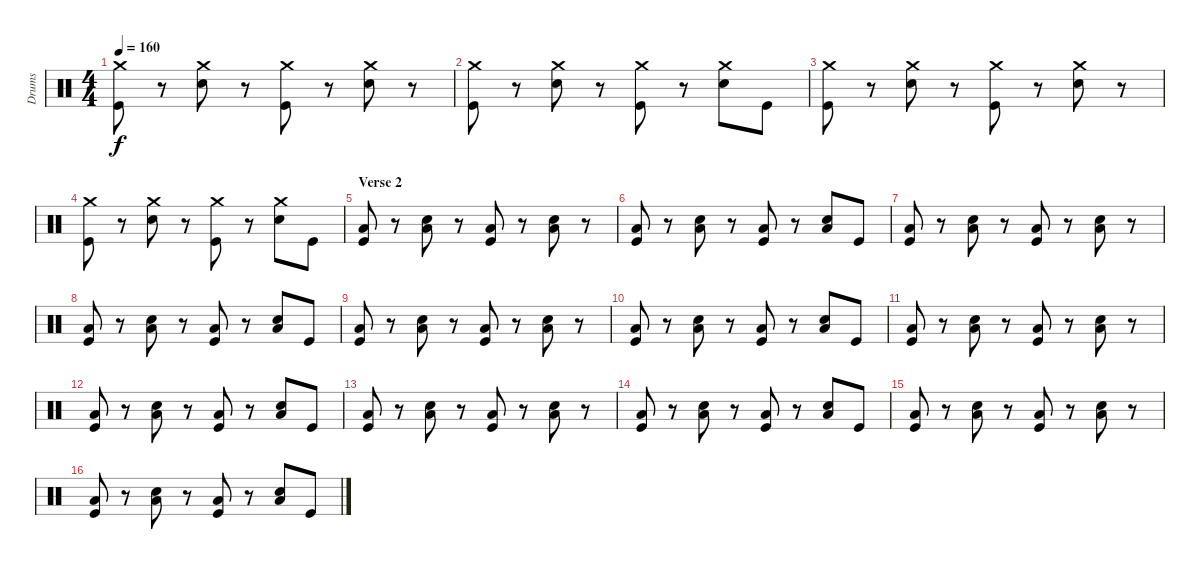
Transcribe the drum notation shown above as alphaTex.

\track ("Drums" "Drums") {instrument percussion}
\staff {score}
\articulation defaults
\ts (4 4)
\tempo 160
\clef neutral
\ks c
("Crash medium (hit)" "Kick (hit)").8{dy f} r.8 ("Crash medium (hit)" "Electric Snare (hit)").8 r.8 ("Crash medium (hit)" "Kick (hit)").8 r.8 ("Crash medium (hit)" "Electric Snare (hit)").8 r.8 |
("Crash medium (hit)" "Kick (hit)").8 r.8 ("Crash medium (hit)" "Electric Snare (hit)").8 r.8 ("Crash medium (hit)" "Kick (hit)").8 r.8 ("Crash medium (hit)" "Electric Snare (hit)").8 "Kick (hit)".8 |
("Crash medium (hit)" "Kick (hit)").8 r.8 ("Crash medium (hit)" "Electric Snare (hit)").8 r.8 ("Crash medium (hit)" "Kick (hit)").8 r.8 ("Crash medium (hit)" "Electric Snare (hit)").8 r.8 |
("Crash medium (hit)" "Kick (hit)").8 r.8 ("Crash medium (hit)" "Electric Snare (hit)").8 r.8 ("Crash medium (hit)" "Kick (hit)").8 r.8 ("Crash medium (hit)" "Electric Snare (hit)").8 "Kick (hit)".8 |
\section ("" "Verse 2")
("Low Tom (hit)" "Kick (hit)").8 r.8 ("Low Tom (hit)" "Electric Snare (hit)").8 r.8 ("Low Tom (hit)" "Kick (hit)").8 r.8 ("Low Tom (hit)" "Electric Snare (hit)").8 r.8 |
("Low Tom (hit)" "Kick (hit)").8 r.8 ("Low Tom (hit)" "Electric Snare (hit)").8 r.8 ("Low Tom (hit)" "Kick (hit)").8 r.8 ("Low Tom (hit)" "Electric Snare (hit)").8 "Kick (hit)".8 |
("Low Tom (hit)" "Kick (hit)").8 r.8 ("Low Tom (hit)" "Electric Snare (hit)").8 r.8 ("Low Tom (hit)" "Kick (hit)").8 r.8 ("Low Tom (hit)" "Electric Snare (hit)").8 r.8 |
("Low Tom (hit)" "Kick (hit)").8 r.8 ("Low Tom (hit)" "Electric Snare (hit)").8 r.8 ("Low Tom (hit)" "Kick (hit)").8 r.8 ("Low Tom (hit)" "Electric Snare (hit)").8 "Kick (hit)".8 |
("Low Tom (hit)" "Kick (hit)").8 r.8 ("Low Tom (hit)" "Electric Snare (hit)").8 r.8 ("Low Tom (hit)" "Kick (hit)").8 r.8 ("Low Tom (hit)" "Electric Snare (hit)").8 r.8 |
("Low Tom (hit)" "Kick (hit)").8 r.8 ("Low Tom (hit)" "Electric Snare (hit)").8 r.8 ("Low Tom (hit)" "Kick (hit)").8 r.8 ("Low Tom (hit)" "Electric Snare (hit)").8 "Kick (hit)".8 |
("Low Tom (hit)" "Kick (hit)").8 r.8 ("Low Tom (hit)" "Electric Snare (hit)").8 r.8 ("Low Tom (hit)" "Kick (hit)").8 r.8 ("Low Tom (hit)" "Electric Snare (hit)").8 r.8 |
("Low Tom (hit)" "Kick (hit)").8 r.8 ("Low Tom (hit)" "Electric Snare (hit)").8 r.8 ("Low Tom (hit)" "Kick (hit)").8 r.8 ("Low Tom (hit)" "Electric Snare (hit)").8 "Kick (hit)".8 |
("Low Tom (hit)" "Kick (hit)").8 r.8 ("Low Tom (hit)" "Electric Snare (hit)").8 r.8 ("Low Tom (hit)" "Kick (hit)").8 r.8 ("Low Tom (hit)" "Electric Snare (hit)").8 r.8 |
("Low Tom (hit)" "Kick (hit)").8 r.8 ("Low Tom (hit)" "Electric Snare (hit)").8 r.8 ("Low Tom (hit)" "Kick (hit)").8 r.8 ("Low Tom (hit)" "Electric Snare (hit)").8 "Kick (hit)".8 |
("Low Tom (hit)" "Kick (hit)").8 r.8 ("Low Tom (hit)" "Electric Snare (hit)").8 r.8 ("Low Tom (hit)" "Kick (hit)").8 r.8 ("Low Tom (hit)" "Electric Snare (hit)").8 r.8 |
("Low Tom (hit)" "Kick (hit)").8 r.8 ("Low Tom (hit)" "Electric Snare (hit)").8 r.8 ("Low Tom (hit)" "Kick (hit)").8 r.8 ("Low Tom (hit)" "Electric Snare (hit)").8 "Kick (hit)".8
